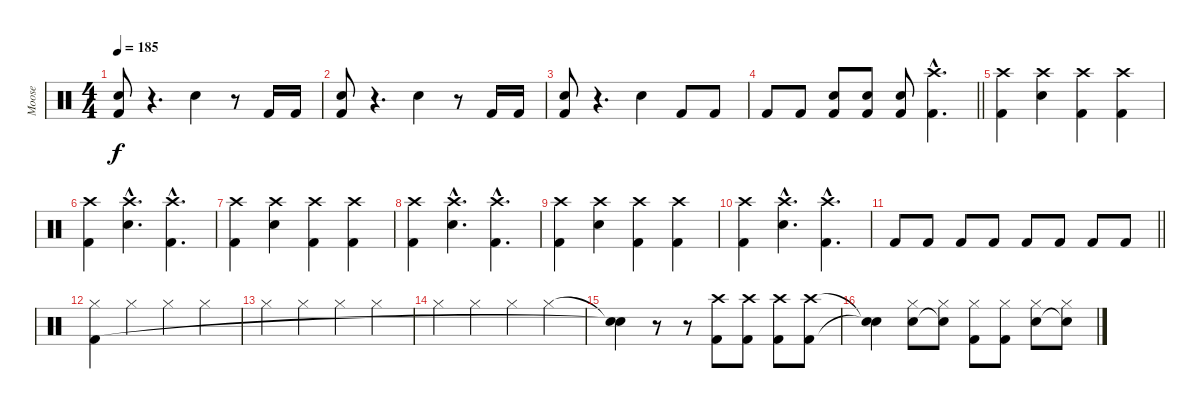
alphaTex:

\track ("Moose" "Moose") {instrument percussion}
\staff {score}
\articulation defaults
\ts (4 4)
\tempo 185
\clef neutral
\ks c
("Snare (hit) 2" "Kick (hit) 2").8{dy f} r.4{d} "Snare (hit) 2".4 r.8 "Kick (hit) 2".16 "Kick (hit) 2".16 |
("Snare (hit) 2" "Kick (hit) 2").8 r.4{d} "Snare (hit) 2".4 r.8 "Kick (hit) 2".16 "Kick (hit) 2".16 |
("Snare (hit) 2" "Kick (hit) 2").8 r.4{d} "Snare (hit) 2".4 "Kick (hit) 2".8 "Kick (hit) 2".8 |
\barLineRight lightlight "Kick (hit) 2".8 "Kick (hit) 2".8
("Snare (hit) 2" "Kick (hit) 2").8 ("Snare (hit) 2" "Kick (hit) 2").8 ("Snare (hit) 2" "Kick (hit) 2").8 ("Crash high (hit)"{hac} "Kick (hit) 2"{hac}).4{d} |
("Crash high (hit)" "Kick (hit) 2").4 ("Crash high (hit)" "Snare (hit) 2").4 ("Crash high (hit)" "Kick (hit) 2").4 ("Crash high (hit)" "Kick (hit) 2").4 |
("Crash high (hit)" "Kick (hit) 2").4 ("Crash high (hit)"{hac} "Snare (hit) 2"{hac}).4{d} ("Crash high (hit)"{hac} "Kick (hit) 2"{hac}).4{d} |
("Crash high (hit)" "Kick (hit) 2").4 ("Crash high (hit)" "Snare (hit) 2").4 ("Crash high (hit)" "Kick (hit) 2").4 ("Crash high (hit)" "Kick (hit) 2").4 |
("Crash high (hit)" "Kick (hit) 2").4 ("Crash high (hit)"{hac} "Snare (hit) 2"{hac}).4{d} ("Crash high (hit)"{hac} "Kick (hit) 2"{hac}).4{d} |
("Crash high (hit)" "Kick (hit) 2").4 ("Crash high (hit)" "Snare (hit) 2").4 ("Crash high (hit)" "Kick (hit) 2").4 ("Crash high (hit)" "Kick (hit) 2").4 |
("Crash high (hit)" "Kick (hit) 2").4 ("Crash high (hit)"{hac} "Snare (hit) 2"{hac}).4{d} ("Crash high (hit)"{hac} "Kick (hit) 2"{hac}).4{d} |
\barLineRight lightlight "Kick (hit) 2".8 "Kick (hit) 2".8 "Kick (hit) 2".8 "Kick (hit) 2".8 "Kick (hit) 2".8 "Kick (hit) 2".8 "Kick (hit) 2".8 "Kick (hit) 2".8
|
("Hi-Hat (closed)" "Kick (hit) 2").4 "Hi-Hat (closed)".4 "Hi-Hat (closed)".4 "Hi-Hat (closed)".4 |
"Hi-Hat (closed)".4 "Hi-Hat (closed)".4 "Hi-Hat (closed)".4 "Hi-Hat (closed)".4 |
"Hi-Hat (closed)".4 "Hi-Hat (closed)".4 "Hi-Hat (closed)".4 "Hi-Hat (closed)".4 |
("Snare (hit)"{t} "Snare (hit)"{t}).4 r.8 r.8 ("Crash high (hit)" "Kick (hit) 2").8 ("Crash high (hit)" "Kick (hit) 2").8 ("Crash high (hit)" "Kick (hit) 2").8 ("Crash high (hit)" "Kick (hit) 2").8 |
("Snare (hit)"{t} "Snare (hit)"{t}).4 ("Hi-Hat (closed)" "Snare (hit) 2").8 ("Hi-Hat (closed)" "Snare (hit) 2"{t}).8 ("Hi-Hat (closed)" "Kick (hit) 2").8 ("Hi-Hat (closed)" "Kick (hit) 2").8 ("Hi-Hat (closed)" "Snare (hit) 2").8 ("Hi-Hat (closed)" "Snare (hit)"{t}).8
